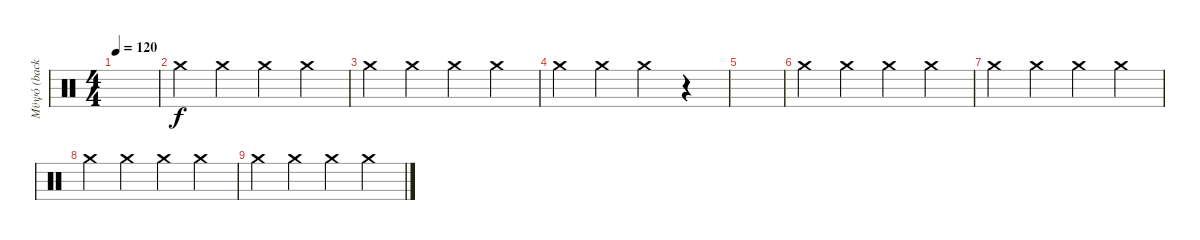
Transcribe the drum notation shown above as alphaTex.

\track ("Μϋψό (back percussion)" "Μϋψό (back") {instrument percussion}
\staff {score}
\articulation defaults
\ts (4 4)
\tempo 120
\clef neutral
\ks c
|
"Crash medium (hit)".4 "Crash medium (hit)".4 "Crash medium (hit)".4 "Crash medium (hit)".4 |
"Crash medium (hit)".4 "Crash medium (hit)".4 "Crash medium (hit)".4 "Crash medium (hit)".4 |
"Crash medium (hit)".4 "Crash medium (hit)".4 "Crash medium (hit)".4 r.4 |
|
"Crash medium (hit)".4 "Crash medium (hit)".4 "Crash medium (hit)".4 "Crash medium (hit)".4 |
"Crash medium (hit)".4 "Crash medium (hit)".4 "Crash medium (hit)".4 "Crash medium (hit)".4 |
"Crash medium (hit)".4 "Crash medium (hit)".4 "Crash medium (hit)".4 "Crash medium (hit)".4 |
"Crash medium (hit)".4 "Crash medium (hit)".4 "Crash medium (hit)".4 "Crash medium (hit)".4
